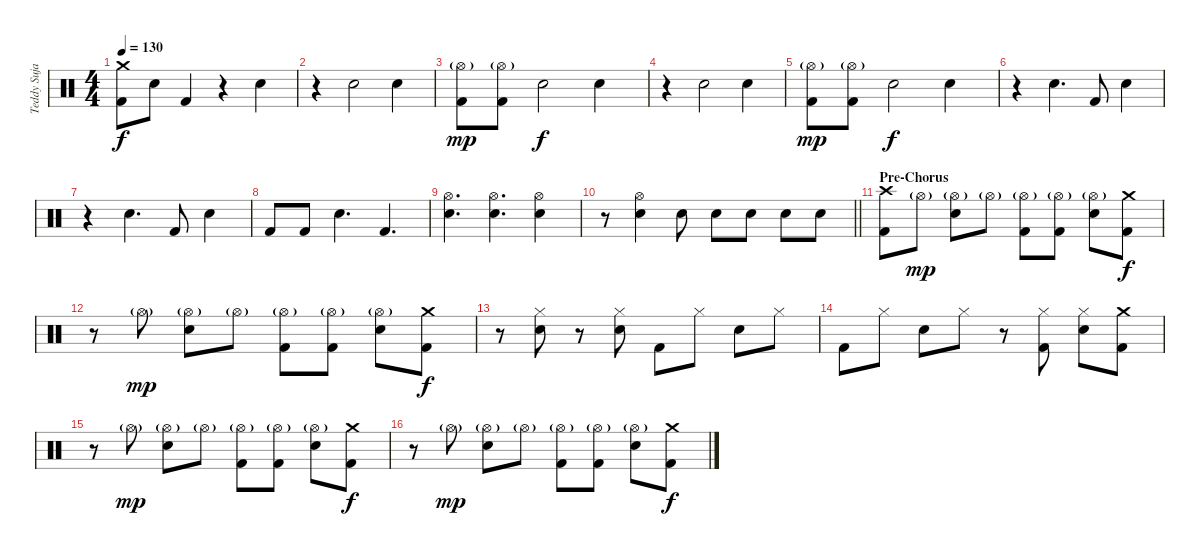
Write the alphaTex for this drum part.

\track ("Teddy Sujaya" "Teddy Suja") {instrument percussion}
\staff {score}
\articulation defaults
\ts (4 4)
\tempo 130
\clef neutral
\ks c
("Crash medium (hit)" "Kick (hit) 2").8{dy f} "Electric Snare (hit)".8 "Kick (hit) 2".4 r.4 "Electric Snare (hit)".4 |
r.4 "Electric Snare (hit)".2 "Electric Snare (hit)".4 |
("Hi-Hat (open)"{g} "Kick (hit) 2").8{dy mp} ("Hi-Hat (open)"{g} "Kick (hit) 2").8 "Electric Snare (hit)".2{dy f} "Electric Snare (hit)".4 |
r.4 "Electric Snare (hit)".2 "Electric Snare (hit)".4 |
("Hi-Hat (open)"{g} "Kick (hit) 2").8{dy mp} ("Hi-Hat (open)"{g} "Kick (hit) 2").8 "Electric Snare (hit)".2{dy f} "Electric Snare (hit)".4 |
r.4 "Electric Snare (hit)".4{d} "Kick (hit) 2".8 "Electric Snare (hit)".4 |
r.4 "Electric Snare (hit)".4{d} "Kick (hit) 2".8 "Electric Snare (hit)".4 |
"Kick (hit) 2".8 "Kick (hit) 2".8 "Electric Snare (hit)".4{d} "Kick (hit) 2".4{d} |
("Hi-Hat (open)" "Electric Snare (hit)").4{d} ("Hi-Hat (open)" "Electric Snare (hit)").4{d} ("Hi-Hat (open)" "Electric Snare (hit)").4 |
\barLineRight lightlight
r.8 ("Hi-Hat (open)" "Electric Snare (hit)").4 "Electric Snare (hit)".8 "Electric Snare (hit)".8 "Electric Snare (hit)".8 "Electric Snare (hit)".8 "Electric Snare (hit)".8 |
\section ("" "Pre-Chorus")
("Crash high (hit)" "Kick (hit) 2").8 "Hi-Hat (open)"{g}.8{dy mp} ("Hi-Hat (open)"{g} "Electric Snare (hit)").8 "Hi-Hat (open)"{g}.8 ("Hi-Hat (open)"{g} "Kick (hit) 2").8 ("Hi-Hat (open)"{g} "Kick (hit) 2").8 ("Hi-Hat (open)"{g} "Electric Snare (hit)").8 ("Crash medium (hit)" "Kick (hit) 2").8{dy f} |
r.8 "Hi-Hat (open)"{g}.8{dy mp} ("Hi-Hat (open)"{g} "Electric Snare (hit)").8 "Hi-Hat (open)"{g}.8 ("Hi-Hat (open)"{g} "Kick (hit) 2").8 ("Hi-Hat (open)"{g} "Kick (hit) 2").8 ("Hi-Hat (open)"{g} "Electric Snare (hit)").8 ("Crash medium (hit)" "Kick (hit) 2").8{dy f} |
r.8 ("Hi-Hat (closed)" "Electric Snare (hit)").8 r.8 ("Hi-Hat (closed)" "Electric Snare (hit)").8 "Kick (hit) 2".8 "Hi-Hat (closed)".8 "Electric Snare (hit)".8 "Hi-Hat (closed)".8 |
"Kick (hit) 2".8 "Hi-Hat (closed)".8 "Electric Snare (hit)".8 "Hi-Hat (closed)".8 r.8 ("Hi-Hat (closed)" "Kick (hit) 2").8 ("Hi-Hat (closed)" "Electric Snare (hit)").8 ("Crash medium (hit)" "Kick (hit) 2").8 |
r.8 "Hi-Hat (open)"{g}.8{dy mp} ("Hi-Hat (open)"{g} "Electric Snare (hit)").8 "Hi-Hat (open)"{g}.8 ("Hi-Hat (open)"{g} "Kick (hit) 2").8 ("Hi-Hat (open)"{g} "Kick (hit) 2").8 ("Hi-Hat (open)"{g} "Electric Snare (hit)").8 ("Crash medium (hit)" "Kick (hit) 2").8{dy f} |
r.8 "Hi-Hat (open)"{g}.8{dy mp} ("Hi-Hat (open)"{g} "Electric Snare (hit)").8 "Hi-Hat (open)"{g}.8 ("Hi-Hat (open)"{g} "Kick (hit) 2").8 ("Hi-Hat (open)"{g} "Kick (hit) 2").8 ("Hi-Hat (open)"{g} "Electric Snare (hit)").8 ("Crash medium (hit)" "Kick (hit) 2").8{dy f}
